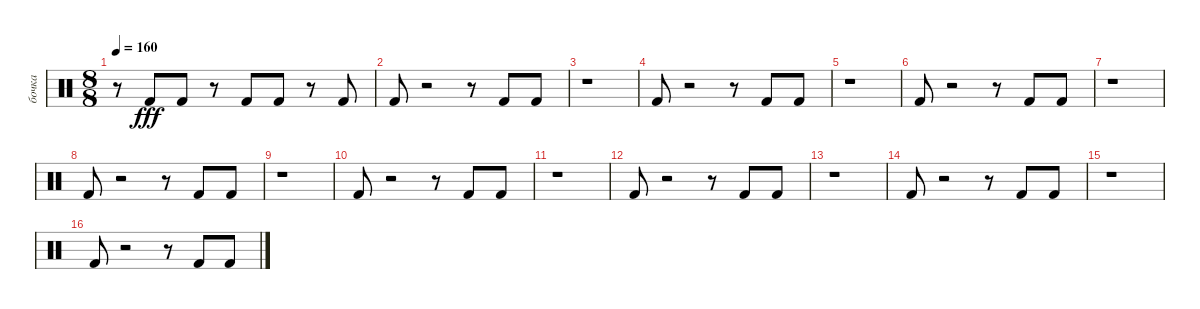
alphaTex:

\track ("бочка" "бочка") {instrument percussion}
\staff {score}
\articulation defaults
\ts (8 8)
\tempo 160
\clef neutral
\ks c
r.8{dy fff} "Kick (hit) 2".8 "Kick (hit) 2".8 r.8 "Kick (hit) 2".8 "Kick (hit) 2".8 r.8 "Kick (hit) 2".8 |
"Kick (hit) 2".8 r.2 r.8 "Kick (hit) 2".8 "Kick (hit) 2".8 |
r.1 |
"Kick (hit) 2".8 r.2 r.8 "Kick (hit) 2".8 "Kick (hit) 2".8 |
r.1 |
"Kick (hit) 2".8 r.2 r.8 "Kick (hit) 2".8 "Kick (hit) 2".8 |
r.1 |
"Kick (hit) 2".8 r.2 r.8 "Kick (hit) 2".8 "Kick (hit) 2".8 |
r.1 |
"Kick (hit) 2".8 r.2 r.8 "Kick (hit) 2".8 "Kick (hit) 2".8 |
r.1 |
"Kick (hit) 2".8 r.2 r.8 "Kick (hit) 2".8 "Kick (hit) 2".8 |
r.1 |
"Kick (hit) 2".8 r.2 r.8 "Kick (hit) 2".8 "Kick (hit) 2".8 |
r.1 |
"Kick (hit) 2".8 r.2 r.8 "Kick (hit) 2".8 "Kick (hit) 2".8
